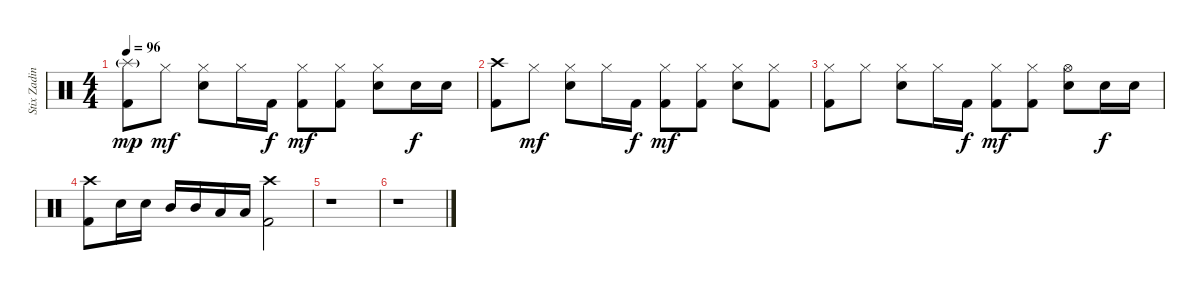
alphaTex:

\track ("Stix Zadinia" "Stix Zadin") {instrument percussion}
\staff {score}
\articulation defaults
\ts (4 4)
\tempo 96
\clef neutral
\ks c
("Splash (hit)"{g} "Kick (hit) 2").8{dy mp} "Hi-Hat (closed)".8{dy mf} ("Hi-Hat (closed)" "Electric Snare (hit)").8 "Hi-Hat (closed)".16 "Kick (hit) 2".16{dy f} ("Hi-Hat (closed)" "Kick (hit) 2").8{dy mf} ("Hi-Hat (closed)" "Kick (hit) 2").8 ("Hi-Hat (closed)" "Electric Snare (hit)").8 "Electric Snare (hit)".16{dy f} "Electric Snare (hit)".16 |
("Crash high (hit)" "Kick (hit) 2").8 "Hi-Hat (closed)".8{dy mf} ("Hi-Hat (closed)" "Electric Snare (hit)").8 "Hi-Hat (closed)".16 "Kick (hit) 2".16{dy f} ("Hi-Hat (closed)" "Kick (hit) 2").8{dy mf} ("Hi-Hat (closed)" "Kick (hit) 2").8 ("Hi-Hat (closed)" "Electric Snare (hit)").8 ("Hi-Hat (closed)" "Kick (hit) 2").8 |
("Hi-Hat (closed)" "Kick (hit) 2").8 "Hi-Hat (closed)".8 ("Hi-Hat (closed)" "Electric Snare (hit)").8 "Hi-Hat (closed)".16 "Kick (hit) 2".16{dy f} ("Hi-Hat (closed)" "Kick (hit) 2").8{dy mf} ("Hi-Hat (closed)" "Kick (hit) 2").8 ("Hi-Hat (open)" "Electric Snare (hit)").8 "Electric Snare (hit)".16{dy f} "Electric Snare (hit)".16 |
("Crash high (hit)" "Kick (hit) 2").8 "Electric Snare (hit)".16 "Electric Snare (hit)".16 "Mid Tom (hit)".16 "Mid Tom (hit)".16 "Low Tom (hit)".16 "Low Tom (hit)".16 ("Crash high (hit)" "Kick (hit) 2").2 |
r.1 |
r.1
